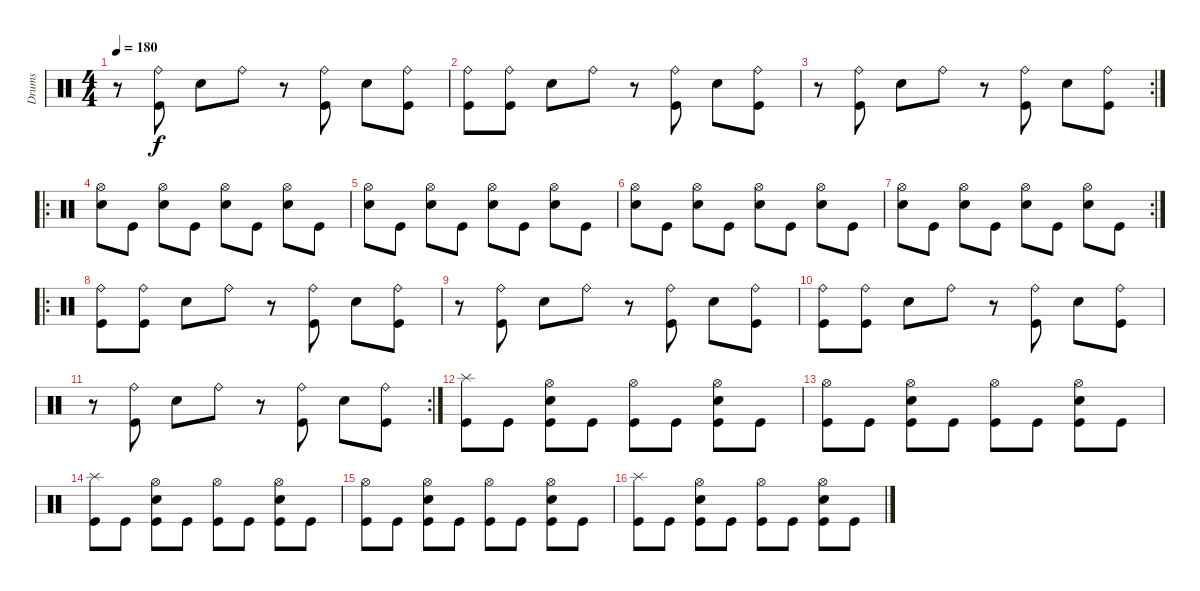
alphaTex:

\track ("Drums" "Drums") {instrument percussion}
\staff {score}
\articulation defaults
\ts (4 4)
\tempo 180
\clef neutral
\ks c
r.8{dy f} ("Kick (hit)" "Ride (bell)").8 "Electric Snare (hit)".8 "Ride (bell)".8 r.8 ("Kick (hit)" "Ride (bell)").8 "Electric Snare (hit)".8 ("Kick (hit)" "Ride (bell)").8 |
("Kick (hit)" "Ride (bell)").8 ("Kick (hit)" "Ride (bell)").8 "Electric Snare (hit)".8 "Ride (bell)".8 r.8 ("Kick (hit)" "Ride (bell)").8 "Electric Snare (hit)".8 ("Kick (hit)" "Ride (bell)").8 |
\rc 2
r.8 ("Kick (hit)" "Ride (bell)").8 "Electric Snare (hit)".8 "Ride (bell)".8 r.8 ("Kick (hit)" "Ride (bell)").8 "Electric Snare (hit)".8 ("Kick (hit)" "Ride (bell)").8 |
\ro
("Electric Snare (hit)" "Hi-Hat (open)").8 "Kick (hit)".8 ("Electric Snare (hit)" "Hi-Hat (open)").8 "Kick (hit)".8 ("Electric Snare (hit)" "Hi-Hat (open)").8 "Kick (hit)".8 ("Electric Snare (hit)" "Hi-Hat (open)").8 "Kick (hit)".8 |
("Electric Snare (hit)" "Hi-Hat (open)").8 "Kick (hit)".8 ("Electric Snare (hit)" "Hi-Hat (open)").8 "Kick (hit)".8 ("Electric Snare (hit)" "Hi-Hat (open)").8 "Kick (hit)".8 ("Electric Snare (hit)" "Hi-Hat (open)").8 "Kick (hit)".8 |
("Electric Snare (hit)" "Hi-Hat (open)").8 "Kick (hit)".8 ("Electric Snare (hit)" "Hi-Hat (open)").8 "Kick (hit)".8 ("Electric Snare (hit)" "Hi-Hat (open)").8 "Kick (hit)".8 ("Electric Snare (hit)" "Hi-Hat (open)").8 "Kick (hit)".8 |
\rc 2
("Electric Snare (hit)" "Hi-Hat (open)").8 "Kick (hit)".8 ("Electric Snare (hit)" "Hi-Hat (open)").8 "Kick (hit)".8 ("Electric Snare (hit)" "Hi-Hat (open)").8 "Kick (hit)".8 ("Electric Snare (hit)" "Hi-Hat (open)").8 "Kick (hit)".8 |
\ro
("Kick (hit)" "Ride (bell)").8 ("Kick (hit)" "Ride (bell)").8 "Electric Snare (hit)".8 "Ride (bell)".8 r.8 ("Kick (hit)" "Ride (bell)").8 "Electric Snare (hit)".8 ("Kick (hit)" "Ride (bell)").8 |
r.8 ("Kick (hit)" "Ride (bell)").8 "Electric Snare (hit)".8 "Ride (bell)".8 r.8 ("Kick (hit)" "Ride (bell)").8 "Electric Snare (hit)".8 ("Kick (hit)" "Ride (bell)").8 |
("Kick (hit)" "Ride (bell)").8 ("Kick (hit)" "Ride (bell)").8 "Electric Snare (hit)".8 "Ride (bell)".8 r.8 ("Kick (hit)" "Ride (bell)").8 "Electric Snare (hit)".8 ("Kick (hit)" "Ride (bell)").8 |
\rc 2
r.8 ("Kick (hit)" "Ride (bell)").8 "Electric Snare (hit)".8 "Ride (bell)".8 r.8 ("Kick (hit)" "Ride (bell)").8 "Electric Snare (hit)".8 ("Kick (hit)" "Ride (bell)").8 |
("Kick (hit)" "Splash (hit)").8 "Kick (hit)".8 ("Kick (hit)" "Electric Snare (hit)" "Hi-Hat (open)").8 "Kick (hit)".8 ("Kick (hit)" "Hi-Hat (open)").8 "Kick (hit)".8 ("Kick (hit)" "Electric Snare (hit)" "Hi-Hat (open)").8 "Kick (hit)".8 |
("Kick (hit)" "Hi-Hat (open)").8 "Kick (hit)".8 ("Kick (hit)" "Electric Snare (hit)" "Hi-Hat (open)").8 "Kick (hit)".8 ("Kick (hit)" "Hi-Hat (open)").8 "Kick (hit)".8 ("Kick (hit)" "Electric Snare (hit)" "Hi-Hat (open)").8 "Kick (hit)".8 |
("Kick (hit)" "Splash (hit)").8 "Kick (hit)".8 ("Kick (hit)" "Electric Snare (hit)" "Hi-Hat (open)").8 "Kick (hit)".8 ("Kick (hit)" "Hi-Hat (open)").8 "Kick (hit)".8 ("Kick (hit)" "Electric Snare (hit)" "Hi-Hat (open)").8 "Kick (hit)".8 |
("Kick (hit)" "Hi-Hat (open)").8 "Kick (hit)".8 ("Kick (hit)" "Electric Snare (hit)" "Hi-Hat (open)").8 "Kick (hit)".8 ("Kick (hit)" "Hi-Hat (open)").8 "Kick (hit)".8 ("Kick (hit)" "Electric Snare (hit)" "Hi-Hat (open)").8 "Kick (hit)".8 |
("Kick (hit)" "Splash (hit)").8 "Kick (hit)".8 ("Kick (hit)" "Electric Snare (hit)" "Hi-Hat (open)").8 "Kick (hit)".8 ("Kick (hit)" "Hi-Hat (open)").8 "Kick (hit)".8 ("Kick (hit)" "Electric Snare (hit)" "Hi-Hat (open)").8 "Kick (hit)".8
